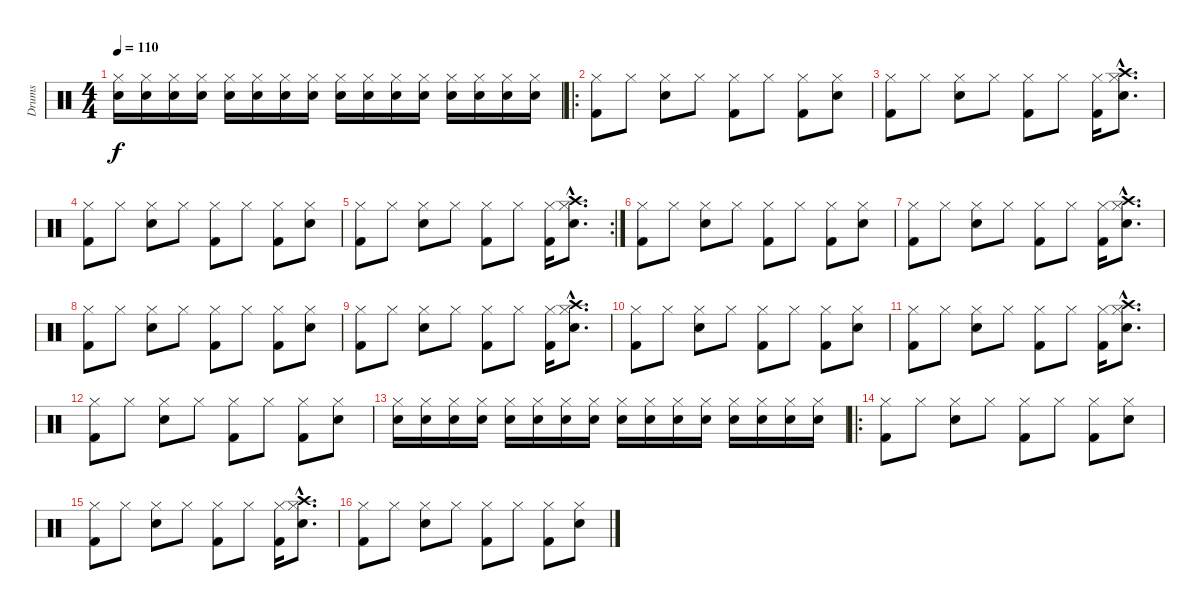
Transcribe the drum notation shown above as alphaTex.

\track ("Drums" "Drums") {instrument percussion}
\staff {score}
\articulation defaults
\ts (4 4)
\tempo 110
\clef neutral
\ks c
("Electric Snare (hit)" "Hi-Hat (closed)").16{dy f} ("Electric Snare (hit)" "Hi-Hat (closed)").16 ("Electric Snare (hit)" "Hi-Hat (closed)").16 ("Electric Snare (hit)" "Hi-Hat (closed)").16 ("Electric Snare (hit)" "Hi-Hat (closed)").16 ("Electric Snare (hit)" "Hi-Hat (closed)").16 ("Electric Snare (hit)" "Hi-Hat (closed)").16 ("Electric Snare (hit)" "Hi-Hat (closed)").16 ("Electric Snare (hit)" "Hi-Hat (closed)").16 ("Electric Snare (hit)" "Hi-Hat (closed)").16 ("Electric Snare (hit)" "Hi-Hat (closed)").16 ("Electric Snare (hit)" "Hi-Hat (closed)").16 ("Electric Snare (hit)" "Hi-Hat (closed)").16 ("Electric Snare (hit)" "Hi-Hat (closed)").16 ("Electric Snare (hit)" "Hi-Hat (closed)").16 ("Electric Snare (hit)" "Hi-Hat (closed)").16 |
\ro
("Kick (hit) 2" "Hi-Hat (closed)").8 "Hi-Hat (closed)".8 ("Snare (hit) 2" "Hi-Hat (closed)").8 "Hi-Hat (closed)".8 ("Kick (hit) 2" "Hi-Hat (closed)").8 "Hi-Hat (closed)".8 ("Kick (hit) 2" "Hi-Hat (closed)").8 ("Snare (hit) 2" "Hi-Hat (closed)").8 |
("Kick (hit) 2" "Hi-Hat (closed)").8 "Hi-Hat (closed)".8 ("Snare (hit) 2" "Hi-Hat (closed)").8 "Hi-Hat (closed)".8 ("Kick (hit) 2" "Hi-Hat (closed)").8 "Hi-Hat (closed)".8 ("Kick (hit) 2" "Hi-Hat (closed)").16 ("Snare (hit) 2"{hac} "Hi-Hat (closed)"{hac} "Crash high (hit)"{hac}).8{d} |
("Kick (hit) 2" "Hi-Hat (closed)").8 "Hi-Hat (closed)".8 ("Snare (hit) 2" "Hi-Hat (closed)").8 "Hi-Hat (closed)".8 ("Kick (hit) 2" "Hi-Hat (closed)").8 "Hi-Hat (closed)".8 ("Kick (hit) 2" "Hi-Hat (closed)").8 ("Snare (hit) 2" "Hi-Hat (closed)").8 |
\rc 2
("Kick (hit) 2" "Hi-Hat (closed)").8 "Hi-Hat (closed)".8 ("Snare (hit) 2" "Hi-Hat (closed)").8 "Hi-Hat (closed)".8 ("Kick (hit) 2" "Hi-Hat (closed)").8 "Hi-Hat (closed)".8 ("Kick (hit) 2" "Hi-Hat (closed)").16 ("Snare (hit) 2"{hac} "Hi-Hat (closed)"{hac} "Crash high (hit)"{hac}).8{d} |
("Kick (hit) 2" "Hi-Hat (closed)").8 "Hi-Hat (closed)".8 ("Snare (hit) 2" "Hi-Hat (closed)").8 "Hi-Hat (closed)".8 ("Kick (hit) 2" "Hi-Hat (closed)").8 "Hi-Hat (closed)".8 ("Kick (hit) 2" "Hi-Hat (closed)").8 ("Snare (hit) 2" "Hi-Hat (closed)").8 |
("Kick (hit) 2" "Hi-Hat (closed)").8 "Hi-Hat (closed)".8 ("Snare (hit) 2" "Hi-Hat (closed)").8 "Hi-Hat (closed)".8 ("Kick (hit) 2" "Hi-Hat (closed)").8 "Hi-Hat (closed)".8 ("Kick (hit) 2" "Hi-Hat (closed)").16 ("Snare (hit) 2"{hac} "Hi-Hat (closed)"{hac} "Crash high (hit)"{hac}).8{d} |
("Kick (hit) 2" "Hi-Hat (closed)").8 "Hi-Hat (closed)".8 ("Snare (hit) 2" "Hi-Hat (closed)").8 "Hi-Hat (closed)".8 ("Kick (hit) 2" "Hi-Hat (closed)").8 "Hi-Hat (closed)".8 ("Kick (hit) 2" "Hi-Hat (closed)").8 ("Snare (hit) 2" "Hi-Hat (closed)").8 |
("Kick (hit) 2" "Hi-Hat (closed)").8 "Hi-Hat (closed)".8 ("Snare (hit) 2" "Hi-Hat (closed)").8 "Hi-Hat (closed)".8 ("Kick (hit) 2" "Hi-Hat (closed)").8 "Hi-Hat (closed)".8 ("Kick (hit) 2" "Hi-Hat (closed)").16 ("Snare (hit) 2"{hac} "Hi-Hat (closed)"{hac} "Crash high (hit)"{hac}).8{d} |
("Kick (hit) 2" "Hi-Hat (closed)").8 "Hi-Hat (closed)".8 ("Snare (hit) 2" "Hi-Hat (closed)").8 "Hi-Hat (closed)".8 ("Kick (hit) 2" "Hi-Hat (closed)").8 "Hi-Hat (closed)".8 ("Kick (hit) 2" "Hi-Hat (closed)").8 ("Snare (hit) 2" "Hi-Hat (closed)").8 |
("Kick (hit) 2" "Hi-Hat (closed)").8 "Hi-Hat (closed)".8 ("Snare (hit) 2" "Hi-Hat (closed)").8 "Hi-Hat (closed)".8 ("Kick (hit) 2" "Hi-Hat (closed)").8 "Hi-Hat (closed)".8 ("Kick (hit) 2" "Hi-Hat (closed)").16 ("Snare (hit) 2"{hac} "Hi-Hat (closed)"{hac} "Crash high (hit)"{hac}).8{d} |
("Kick (hit) 2" "Hi-Hat (closed)").8 "Hi-Hat (closed)".8 ("Snare (hit) 2" "Hi-Hat (closed)").8 "Hi-Hat (closed)".8 ("Kick (hit) 2" "Hi-Hat (closed)").8 "Hi-Hat (closed)".8 ("Kick (hit) 2" "Hi-Hat (closed)").8 ("Snare (hit) 2" "Hi-Hat (closed)").8 |
("Electric Snare (hit)" "Hi-Hat (closed)").16 ("Electric Snare (hit)" "Hi-Hat (closed)").16 ("Electric Snare (hit)" "Hi-Hat (closed)").16 ("Electric Snare (hit)" "Hi-Hat (closed)").16 ("Electric Snare (hit)" "Hi-Hat (closed)").16 ("Electric Snare (hit)" "Hi-Hat (closed)").16 ("Electric Snare (hit)" "Hi-Hat (closed)").16 ("Electric Snare (hit)" "Hi-Hat (closed)").16 ("Electric Snare (hit)" "Hi-Hat (closed)").16 ("Electric Snare (hit)" "Hi-Hat (closed)").16 ("Electric Snare (hit)" "Hi-Hat (closed)").16 ("Electric Snare (hit)" "Hi-Hat (closed)").16 ("Electric Snare (hit)" "Hi-Hat (closed)").16 ("Electric Snare (hit)" "Hi-Hat (closed)").16 ("Electric Snare (hit)" "Hi-Hat (closed)").16 ("Electric Snare (hit)" "Hi-Hat (closed)").16 |
\ro
("Kick (hit) 2" "Hi-Hat (closed)").8 "Hi-Hat (closed)".8 ("Snare (hit) 2" "Hi-Hat (closed)").8 "Hi-Hat (closed)".8 ("Kick (hit) 2" "Hi-Hat (closed)").8 "Hi-Hat (closed)".8 ("Kick (hit) 2" "Hi-Hat (closed)").8 ("Snare (hit) 2" "Hi-Hat (closed)").8 |
("Kick (hit) 2" "Hi-Hat (closed)").8 "Hi-Hat (closed)".8 ("Snare (hit) 2" "Hi-Hat (closed)").8 "Hi-Hat (closed)".8 ("Kick (hit) 2" "Hi-Hat (closed)").8 "Hi-Hat (closed)".8 ("Kick (hit) 2" "Hi-Hat (closed)").16 ("Snare (hit) 2"{hac} "Hi-Hat (closed)"{hac} "Crash high (hit)"{hac}).8{d} |
("Kick (hit) 2" "Hi-Hat (closed)").8 "Hi-Hat (closed)".8 ("Snare (hit) 2" "Hi-Hat (closed)").8 "Hi-Hat (closed)".8 ("Kick (hit) 2" "Hi-Hat (closed)").8 "Hi-Hat (closed)".8 ("Kick (hit) 2" "Hi-Hat (closed)").8 ("Snare (hit) 2" "Hi-Hat (closed)").8
